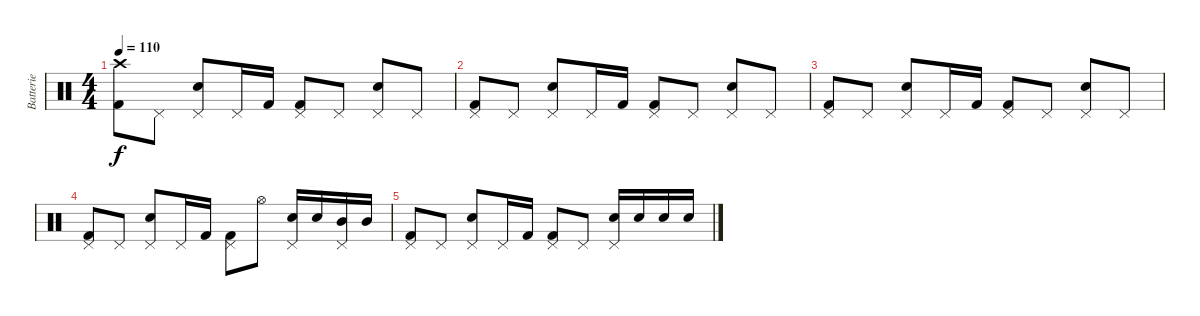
\track ("Batterie" "Batterie") {instrument percussion}
\staff {score}
\articulation defaults
\ts (4 4)
\tempo 110
\clef neutral
\ks c
("Crash high (hit)" "Kick (hit) 2").8{dy f} "Pedal Hi-Hat (hit)".8 ("Pedal Hi-Hat (hit)" "Electric Snare (hit)").8 "Pedal Hi-Hat (hit)".16 "Kick (hit) 2".16 ("Pedal Hi-Hat (hit)" "Kick (hit) 2").8 "Pedal Hi-Hat (hit)".8 ("Pedal Hi-Hat (hit)" "Electric Snare (hit)").8 "Pedal Hi-Hat (hit)".8 |
("Pedal Hi-Hat (hit)" "Kick (hit) 2").8 "Pedal Hi-Hat (hit)".8 ("Pedal Hi-Hat (hit)" "Electric Snare (hit)").8 "Pedal Hi-Hat (hit)".16 "Kick (hit) 2".16 ("Pedal Hi-Hat (hit)" "Kick (hit) 2").8 "Pedal Hi-Hat (hit)".8 ("Pedal Hi-Hat (hit)" "Electric Snare (hit)").8 "Pedal Hi-Hat (hit)".8 |
("Pedal Hi-Hat (hit)" "Kick (hit) 2").8 "Pedal Hi-Hat (hit)".8 ("Pedal Hi-Hat (hit)" "Electric Snare (hit)").8 "Pedal Hi-Hat (hit)".16 "Kick (hit) 2".16 ("Pedal Hi-Hat (hit)" "Kick (hit) 2").8 "Pedal Hi-Hat (hit)".8 ("Pedal Hi-Hat (hit)" "Electric Snare (hit)").8 "Pedal Hi-Hat (hit)".8 |
("Pedal Hi-Hat (hit)" "Kick (hit) 2").8 "Pedal Hi-Hat (hit)".8 ("Pedal Hi-Hat (hit)" "Electric Snare (hit)").8 "Pedal Hi-Hat (hit)".16 "Kick (hit) 2".16 ("Pedal Hi-Hat (hit)" "Kick (hit) 2").8 "Hi-Hat (open)".8 ("Pedal Hi-Hat (hit)" "Electric Snare (hit)").16 "Electric Snare (hit)".16 ("Pedal Hi-Hat (hit)" "Mid Tom (hit)").16 "Mid Tom (hit)".16 |
("Pedal Hi-Hat (hit)" "Kick (hit) 2").8 "Pedal Hi-Hat (hit)".8 ("Pedal Hi-Hat (hit)" "Electric Snare (hit)").8 "Pedal Hi-Hat (hit)".16 "Kick (hit) 2".16 ("Pedal Hi-Hat (hit)" "Kick (hit) 2").8 "Pedal Hi-Hat (hit)".8 ("Pedal Hi-Hat (hit)" "Electric Snare (hit)").16 "Electric Snare (hit)".16 "Electric Snare (hit)".16 "Electric Snare (hit)".16
